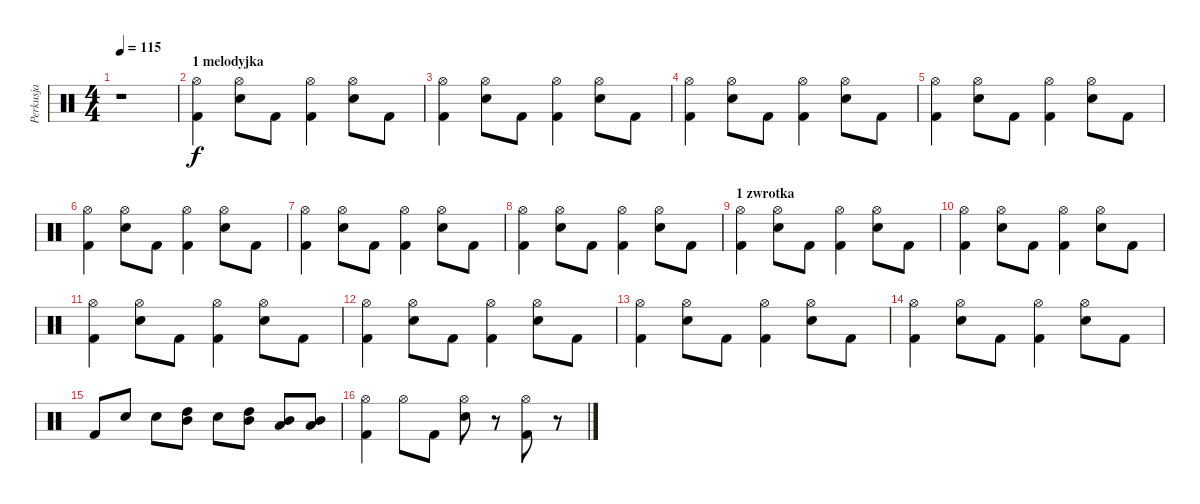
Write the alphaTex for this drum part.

\track ("Perkusja" "Perkusja") {instrument percussion}
\staff {score}
\articulation defaults
\ts (4 4)
\tempo 115
\clef neutral
\ks c
r.1{dy f} |
\section ("" "1 melodyjka")
("Hi-Hat (open)" "Kick (hit) 2").4 ("Hi-Hat (open)" "Snare (hit) 2").8 "Kick (hit) 2".8 ("Hi-Hat (open)" "Kick (hit) 2").4 ("Hi-Hat (open)" "Snare (hit) 2").8 "Kick (hit) 2".8 |
("Hi-Hat (open)" "Kick (hit) 2").4 ("Hi-Hat (open)" "Snare (hit) 2").8 "Kick (hit) 2".8 ("Hi-Hat (open)" "Kick (hit) 2").4 ("Hi-Hat (open)" "Snare (hit) 2").8 "Kick (hit) 2".8 |
("Hi-Hat (open)" "Kick (hit) 2").4 ("Hi-Hat (open)" "Snare (hit) 2").8 "Kick (hit) 2".8 ("Hi-Hat (open)" "Kick (hit) 2").4 ("Hi-Hat (open)" "Snare (hit) 2").8 "Kick (hit) 2".8 |
("Hi-Hat (open)" "Kick (hit) 2").4 ("Hi-Hat (open)" "Snare (hit) 2").8 "Kick (hit) 2".8 ("Hi-Hat (open)" "Kick (hit) 2").4 ("Hi-Hat (open)" "Snare (hit) 2").8 "Kick (hit) 2".8 |
("Hi-Hat (open)" "Kick (hit) 2").4 ("Hi-Hat (open)" "Snare (hit) 2").8 "Kick (hit) 2".8 ("Hi-Hat (open)" "Kick (hit) 2").4 ("Hi-Hat (open)" "Snare (hit) 2").8 "Kick (hit) 2".8 |
("Hi-Hat (open)" "Kick (hit) 2").4 ("Hi-Hat (open)" "Snare (hit) 2").8 "Kick (hit) 2".8 ("Hi-Hat (open)" "Kick (hit) 2").4 ("Hi-Hat (open)" "Snare (hit) 2").8 "Kick (hit) 2".8 |
("Hi-Hat (open)" "Kick (hit) 2").4 ("Hi-Hat (open)" "Snare (hit) 2").8 "Kick (hit) 2".8 ("Hi-Hat (open)" "Kick (hit) 2").4 ("Hi-Hat (open)" "Snare (hit) 2").8 "Kick (hit) 2".8 |
\section ("" "1 zwrotka")
("Hi-Hat (open)" "Kick (hit) 2").4 ("Hi-Hat (open)" "Snare (hit) 2").8 "Kick (hit) 2".8 ("Hi-Hat (open)" "Kick (hit) 2").4 ("Hi-Hat (open)" "Snare (hit) 2").8 "Kick (hit) 2".8 |
("Hi-Hat (open)" "Kick (hit) 2").4 ("Hi-Hat (open)" "Snare (hit) 2").8 "Kick (hit) 2".8 ("Hi-Hat (open)" "Kick (hit) 2").4 ("Hi-Hat (open)" "Snare (hit) 2").8 "Kick (hit) 2".8 |
("Hi-Hat (open)" "Kick (hit) 2").4 ("Hi-Hat (open)" "Snare (hit) 2").8 "Kick (hit) 2".8 ("Hi-Hat (open)" "Kick (hit) 2").4 ("Hi-Hat (open)" "Snare (hit) 2").8 "Kick (hit) 2".8 |
("Hi-Hat (open)" "Kick (hit) 2").4 ("Hi-Hat (open)" "Snare (hit) 2").8 "Kick (hit) 2".8 ("Hi-Hat (open)" "Kick (hit) 2").4 ("Hi-Hat (open)" "Snare (hit) 2").8 "Kick (hit) 2".8 |
("Hi-Hat (open)" "Kick (hit) 2").4 ("Hi-Hat (open)" "Snare (hit) 2").8 "Kick (hit) 2".8 ("Hi-Hat (open)" "Kick (hit) 2").4 ("Hi-Hat (open)" "Snare (hit) 2").8 "Kick (hit) 2".8 |
("Hi-Hat (open)" "Kick (hit) 2").4 ("Hi-Hat (open)" "Snare (hit) 2").8 "Kick (hit) 2".8 ("Hi-Hat (open)" "Kick (hit) 2").4 ("Hi-Hat (open)" "Snare (hit) 2").8 "Kick (hit) 2".8 |
"Kick (hit) 2".8 "Snare (hit) 2".8 "Snare (hit) 2".8 ("Mid Tom (hit)" "High Tom (hit)").8 "Snare (hit) 2".8 ("Mid Tom (hit)" "High Tom (hit)").8 ("Low Tom (hit)" "Mid Tom (hit)").8 ("Low Tom (hit)" "Mid Tom (hit)").8 |
("Hi-Hat (open)" "Kick (hit) 2").4 "Hi-Hat (open)".8 "Kick (hit) 2".8 ("Hi-Hat (open)" "Snare (hit) 2").8 r.8 ("Hi-Hat (open)" "Kick (hit) 2").8 r.8
